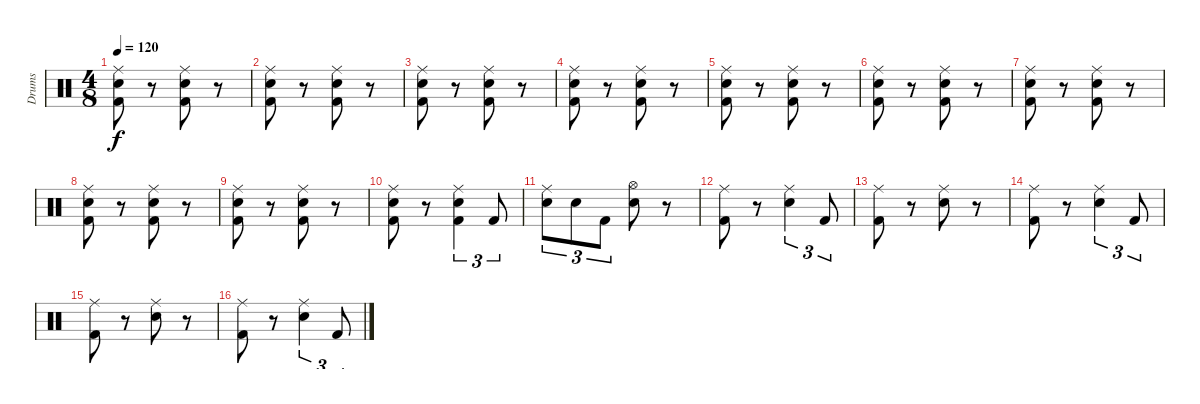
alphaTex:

\track ("Drums" "Drums") {instrument percussion}
\staff {score}
\articulation defaults
\ts (4 8)
\tempo 120
\clef neutral
\ks c
("Ride (middle)" "Electric Snare (hit)" "Kick (hit) 2").8{dy f} r.8 ("Ride (middle)" "Electric Snare (hit)" "Kick (hit) 2").8 r.8 |
("Ride (middle)" "Electric Snare (hit)" "Kick (hit) 2").8 r.8 ("Ride (middle)" "Electric Snare (hit)" "Kick (hit) 2").8 r.8 |
("Ride (middle)" "Electric Snare (hit)" "Kick (hit) 2").8 r.8 ("Ride (middle)" "Electric Snare (hit)" "Kick (hit) 2").8 r.8 |
("Ride (middle)" "Electric Snare (hit)" "Kick (hit) 2").8 r.8 ("Ride (middle)" "Electric Snare (hit)" "Kick (hit) 2").8 r.8 |
("Ride (middle)" "Electric Snare (hit)" "Kick (hit) 2").8 r.8 ("Ride (middle)" "Electric Snare (hit)" "Kick (hit) 2").8 r.8 |
("Ride (middle)" "Electric Snare (hit)" "Kick (hit) 2").8 r.8 ("Ride (middle)" "Electric Snare (hit)" "Kick (hit) 2").8 r.8 |
("Ride (middle)" "Electric Snare (hit)" "Kick (hit) 2").8 r.8 ("Ride (middle)" "Electric Snare (hit)" "Kick (hit) 2").8 r.8 |
("Ride (middle)" "Electric Snare (hit)" "Kick (hit) 2").8 r.8 ("Ride (middle)" "Electric Snare (hit)" "Kick (hit) 2").8 r.8 |
("Ride (middle)" "Electric Snare (hit)" "Kick (hit) 2").8 r.8 ("Ride (middle)" "Electric Snare (hit)" "Kick (hit) 2").8 r.8 |
("Ride (middle)" "Electric Snare (hit)" "Kick (hit) 2").8 r.8 ("Ride (middle)" "Electric Snare (hit)" "Kick (hit) 2").4{tu (3 2)} "Kick (hit) 2".8{tu (3 2)} |
("Ride (middle)" "Electric Snare (hit)").8{tu (3 2)} "Electric Snare (hit)".8{tu (3 2)} "Kick (hit) 2".8{tu (3 2)} ("Hi-Hat (open)" "Electric Snare (hit)").8 r.8 |
("Ride (middle)" "Kick (hit) 2").8 r.8 ("Ride (middle)" "Electric Snare (hit)").4{tu (3 2)} "Kick (hit) 2".8{tu (3 2)} |
("Ride (middle)" "Kick (hit) 2").8 r.8 ("Ride (middle)" "Electric Snare (hit)").8 r.8 |
("Ride (middle)" "Kick (hit) 2").8 r.8 ("Ride (middle)" "Electric Snare (hit)").4{tu (3 2)} "Kick (hit) 2".8{tu (3 2)} |
("Ride (middle)" "Kick (hit) 2").8 r.8 ("Ride (middle)" "Electric Snare (hit)").8 r.8 |
("Ride (middle)" "Kick (hit) 2").8 r.8 ("Ride (middle)" "Electric Snare (hit)").4{tu (3 2)} "Kick (hit) 2".8{tu (3 2)}
